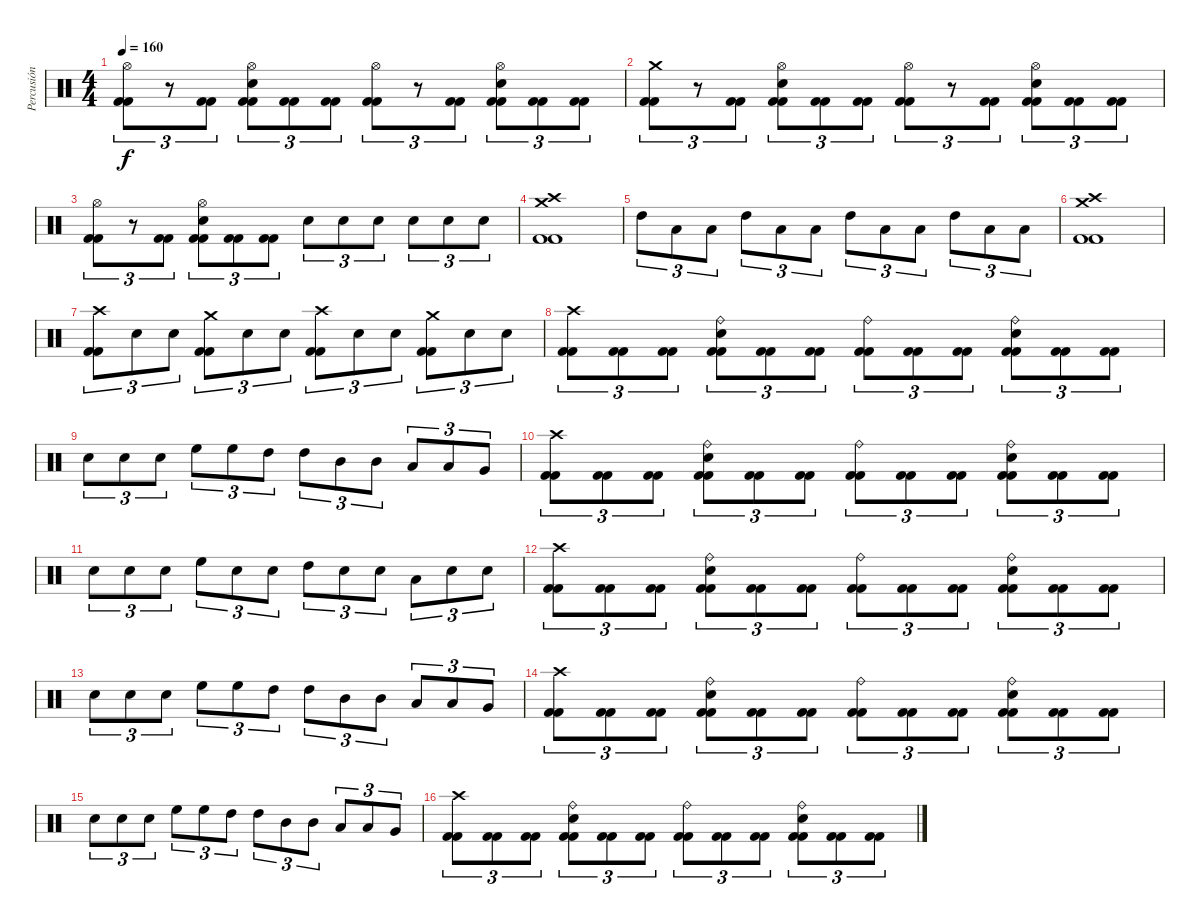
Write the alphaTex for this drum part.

\track ("Percusión" "Percusión") {instrument percussion}
\staff {score}
\articulation defaults
\ts (4 4)
\tempo 160
\clef neutral
\ks c
("Hi-Hat (open)" "Kick (hit) 2" "Kick (hit) 2").8{tu (3 2) dy f} r.8{tu (3 2)} ("Kick (hit) 2" "Kick (hit) 2").8{tu (3 2)} ("Hi-Hat (open)" "Snare (hit) 2" "Kick (hit) 2" "Kick (hit) 2").8{tu (3 2)} ("Kick (hit) 2" "Kick (hit) 2").8{tu (3 2)} ("Kick (hit) 2" "Kick (hit) 2").8{tu (3 2)} ("Hi-Hat (open)" "Kick (hit) 2" "Kick (hit) 2").8{tu (3 2)} r.8{tu (3 2)} ("Kick (hit) 2" "Kick (hit) 2").8{tu (3 2)} ("Hi-Hat (open)" "Snare (hit) 2" "Kick (hit) 2" "Kick (hit) 2").8{tu (3 2)} ("Kick (hit) 2" "Kick (hit) 2").8{tu (3 2)} ("Kick (hit) 2" "Kick (hit) 2").8{tu (3 2)} |
("Crash medium (hit)" "Kick (hit) 2" "Kick (hit) 2").8{tu (3 2)} r.8{tu (3 2)} ("Kick (hit) 2" "Kick (hit) 2").8{tu (3 2)} ("Hi-Hat (open)" "Snare (hit) 2" "Kick (hit) 2" "Kick (hit) 2").8{tu (3 2)} ("Kick (hit) 2" "Kick (hit) 2").8{tu (3 2)} ("Kick (hit) 2" "Kick (hit) 2").8{tu (3 2)} ("Hi-Hat (open)" "Kick (hit) 2" "Kick (hit) 2").8{tu (3 2)} r.8{tu (3 2)} ("Kick (hit) 2" "Kick (hit) 2").8{tu (3 2)} ("Hi-Hat (open)" "Snare (hit) 2" "Kick (hit) 2" "Kick (hit) 2").8{tu (3 2)} ("Kick (hit) 2" "Kick (hit) 2").8{tu (3 2)} ("Kick (hit) 2" "Kick (hit) 2").8{tu (3 2)} |
("Hi-Hat (open)" "Kick (hit) 2" "Kick (hit) 2").8{tu (3 2)} r.8{tu (3 2)} ("Kick (hit) 2" "Kick (hit) 2").8{tu (3 2)} ("Hi-Hat (open)" "Snare (hit) 2" "Kick (hit) 2" "Kick (hit) 2").8{tu (3 2)} ("Kick (hit) 2" "Kick (hit) 2").8{tu (3 2)} ("Kick (hit) 2" "Kick (hit) 2").8{tu (3 2)} "Snare (hit) 2".8{tu (3 2)} "Snare (hit) 2".8{tu (3 2)} "Snare (hit) 2".8{tu (3 2)} "Snare (hit) 2".8{tu (3 2)} "Snare (hit) 2".8{tu (3 2)} "Snare (hit) 2".8{tu (3 2)} |
("Crash high (hit)" "Crash medium (hit)" "Kick (hit) 2" "Kick (hit) 2").1 |
"High Tom (hit)".8{tu (3 2)} "Low Tom (hit)".8{tu (3 2)} "Low Tom (hit)".8{tu (3 2)} "High Tom (hit)".8{tu (3 2)} "Low Tom (hit)".8{tu (3 2)} "Low Tom (hit)".8{tu (3 2)} "High Tom (hit)".8{tu (3 2)} "Low Tom (hit)".8{tu (3 2)} "Low Tom (hit)".8{tu (3 2)} "High Tom (hit)".8{tu (3 2)} "Low Tom (hit)".8{tu (3 2)} "Low Tom (hit)".8{tu (3 2)} |
("Crash high (hit)" "Crash medium (hit)" "Kick (hit) 2" "Kick (hit) 2").1 |
("Crash high (hit)" "Kick (hit) 2" "Kick (hit) 2").8{tu (3 2)} "Snare (hit) 2".8{tu (3 2)} "Snare (hit) 2".8{tu (3 2)} ("Crash medium (hit)" "Kick (hit) 2" "Kick (hit) 2").8{tu (3 2)} "Snare (hit) 2".8{tu (3 2)} "Snare (hit) 2".8{tu (3 2)} ("Crash high (hit)" "Kick (hit) 2" "Kick (hit) 2").8{tu (3 2)} "Snare (hit) 2".8{tu (3 2)} "Snare (hit) 2".8{tu (3 2)} ("Crash medium (hit)" "Kick (hit) 2" "Kick (hit) 2").8{tu (3 2)} "Snare (hit) 2".8{tu (3 2)} "Snare (hit) 2".8{tu (3 2)} |
("Crash high (hit)" "Kick (hit) 2" "Kick (hit) 2").8{tu (3 2)} ("Kick (hit) 2" "Kick (hit) 2").8{tu (3 2)} ("Kick (hit) 2" "Kick (hit) 2").8{tu (3 2)} ("Ride (bell)" "Snare (hit) 2" "Kick (hit) 2" "Kick (hit) 2").8{tu (3 2)} ("Kick (hit) 2" "Kick (hit) 2").8{tu (3 2)} ("Kick (hit) 2" "Kick (hit) 2").8{tu (3 2)} ("Ride (bell)" "Kick (hit) 2" "Kick (hit) 2").8{tu (3 2)} ("Kick (hit) 2" "Kick (hit) 2").8{tu (3 2)} ("Kick (hit) 2" "Kick (hit) 2").8{tu (3 2)} ("Ride (bell)" "Snare (hit) 2" "Kick (hit) 2" "Kick (hit) 2").8{tu (3 2)} ("Kick (hit) 2" "Kick (hit) 2").8{tu (3 2)} ("Kick (hit) 2" "Kick (hit) 2").8{tu (3 2)} |
"Snare (hit) 2".8{tu (3 2)} "Snare (hit) 2".8{tu (3 2)} "Snare (hit) 2".8{tu (3 2)} "High Floor Tom (hit)".8{tu (3 2)} "High Floor Tom (hit)".8{tu (3 2)} "High Tom (hit)".8{tu (3 2)} "High Tom (hit)".8{tu (3 2)} "Mid Tom (hit)".8{tu (3 2)} "Mid Tom (hit)".8{tu (3 2)} "Low Tom (hit)".8{tu (3 2)} "Low Tom (hit)".8{tu (3 2)} "Very Low Tom (hit)".8{tu (3 2)} |
("Crash high (hit)" "Kick (hit) 2" "Kick (hit) 2").8{tu (3 2)} ("Kick (hit) 2" "Kick (hit) 2").8{tu (3 2)} ("Kick (hit) 2" "Kick (hit) 2").8{tu (3 2)} ("Ride (bell)" "Snare (hit) 2" "Kick (hit) 2" "Kick (hit) 2").8{tu (3 2)} ("Kick (hit) 2" "Kick (hit) 2").8{tu (3 2)} ("Kick (hit) 2" "Kick (hit) 2").8{tu (3 2)} ("Ride (bell)" "Kick (hit) 2" "Kick (hit) 2").8{tu (3 2)} ("Kick (hit) 2" "Kick (hit) 2").8{tu (3 2)} ("Kick (hit) 2" "Kick (hit) 2").8{tu (3 2)} ("Ride (bell)" "Snare (hit) 2" "Kick (hit) 2" "Kick (hit) 2").8{tu (3 2)} ("Kick (hit) 2" "Kick (hit) 2").8{tu (3 2)} ("Kick (hit) 2" "Kick (hit) 2").8{tu (3 2)} |
"Snare (hit) 2".8{tu (3 2)} "Snare (hit) 2".8{tu (3 2)} "Snare (hit) 2".8{tu (3 2)} "High Floor Tom (hit)".8{tu (3 2)} "Snare (hit) 2".8{tu (3 2)} "Snare (hit) 2".8{tu (3 2)} "High Tom (hit)".8{tu (3 2)} "Snare (hit) 2".8{tu (3 2)} "Snare (hit) 2".8{tu (3 2)} "Low Tom (hit)".8{tu (3 2)} "Snare (hit) 2".8{tu (3 2)} "Snare (hit) 2".8{tu (3 2)} |
("Crash high (hit)" "Kick (hit) 2" "Kick (hit) 2").8{tu (3 2)} ("Kick (hit) 2" "Kick (hit) 2").8{tu (3 2)} ("Kick (hit) 2" "Kick (hit) 2").8{tu (3 2)} ("Ride (bell)" "Snare (hit) 2" "Kick (hit) 2" "Kick (hit) 2").8{tu (3 2)} ("Kick (hit) 2" "Kick (hit) 2").8{tu (3 2)} ("Kick (hit) 2" "Kick (hit) 2").8{tu (3 2)} ("Ride (bell)" "Kick (hit) 2" "Kick (hit) 2").8{tu (3 2)} ("Kick (hit) 2" "Kick (hit) 2").8{tu (3 2)} ("Kick (hit) 2" "Kick (hit) 2").8{tu (3 2)} ("Ride (bell)" "Snare (hit) 2" "Kick (hit) 2" "Kick (hit) 2").8{tu (3 2)} ("Kick (hit) 2" "Kick (hit) 2").8{tu (3 2)} ("Kick (hit) 2" "Kick (hit) 2").8{tu (3 2)} |
"Snare (hit) 2".8{tu (3 2)} "Snare (hit) 2".8{tu (3 2)} "Snare (hit) 2".8{tu (3 2)} "High Floor Tom (hit)".8{tu (3 2)} "High Floor Tom (hit)".8{tu (3 2)} "High Tom (hit)".8{tu (3 2)} "High Tom (hit)".8{tu (3 2)} "Mid Tom (hit)".8{tu (3 2)} "Mid Tom (hit)".8{tu (3 2)} "Low Tom (hit)".8{tu (3 2)} "Low Tom (hit)".8{tu (3 2)} "Very Low Tom (hit)".8{tu (3 2)} |
("Crash high (hit)" "Kick (hit) 2" "Kick (hit) 2").8{tu (3 2)} ("Kick (hit) 2" "Kick (hit) 2").8{tu (3 2)} ("Kick (hit) 2" "Kick (hit) 2").8{tu (3 2)} ("Ride (bell)" "Snare (hit) 2" "Kick (hit) 2" "Kick (hit) 2").8{tu (3 2)} ("Kick (hit) 2" "Kick (hit) 2").8{tu (3 2)} ("Kick (hit) 2" "Kick (hit) 2").8{tu (3 2)} ("Ride (bell)" "Kick (hit) 2" "Kick (hit) 2").8{tu (3 2)} ("Kick (hit) 2" "Kick (hit) 2").8{tu (3 2)} ("Kick (hit) 2" "Kick (hit) 2").8{tu (3 2)} ("Ride (bell)" "Snare (hit) 2" "Kick (hit) 2" "Kick (hit) 2").8{tu (3 2)} ("Kick (hit) 2" "Kick (hit) 2").8{tu (3 2)} ("Kick (hit) 2" "Kick (hit) 2").8{tu (3 2)} |
"Snare (hit) 2".8{tu (3 2)} "Snare (hit) 2".8{tu (3 2)} "Snare (hit) 2".8{tu (3 2)} "High Floor Tom (hit)".8{tu (3 2)} "High Floor Tom (hit)".8{tu (3 2)} "High Tom (hit)".8{tu (3 2)} "High Tom (hit)".8{tu (3 2)} "Mid Tom (hit)".8{tu (3 2)} "Mid Tom (hit)".8{tu (3 2)} "Low Tom (hit)".8{tu (3 2)} "Low Tom (hit)".8{tu (3 2)} "Very Low Tom (hit)".8{tu (3 2)} |
("Crash high (hit)" "Kick (hit) 2" "Kick (hit) 2").8{tu (3 2)} ("Kick (hit) 2" "Kick (hit) 2").8{tu (3 2)} ("Kick (hit) 2" "Kick (hit) 2").8{tu (3 2)} ("Ride (bell)" "Snare (hit) 2" "Kick (hit) 2" "Kick (hit) 2").8{tu (3 2)} ("Kick (hit) 2" "Kick (hit) 2").8{tu (3 2)} ("Kick (hit) 2" "Kick (hit) 2").8{tu (3 2)} ("Ride (bell)" "Kick (hit) 2" "Kick (hit) 2").8{tu (3 2)} ("Kick (hit) 2" "Kick (hit) 2").8{tu (3 2)} ("Kick (hit) 2" "Kick (hit) 2").8{tu (3 2)} ("Ride (bell)" "Snare (hit) 2" "Kick (hit) 2" "Kick (hit) 2").8{tu (3 2)} ("Kick (hit) 2" "Kick (hit) 2").8{tu (3 2)} ("Kick (hit) 2" "Kick (hit) 2").8{tu (3 2)}
